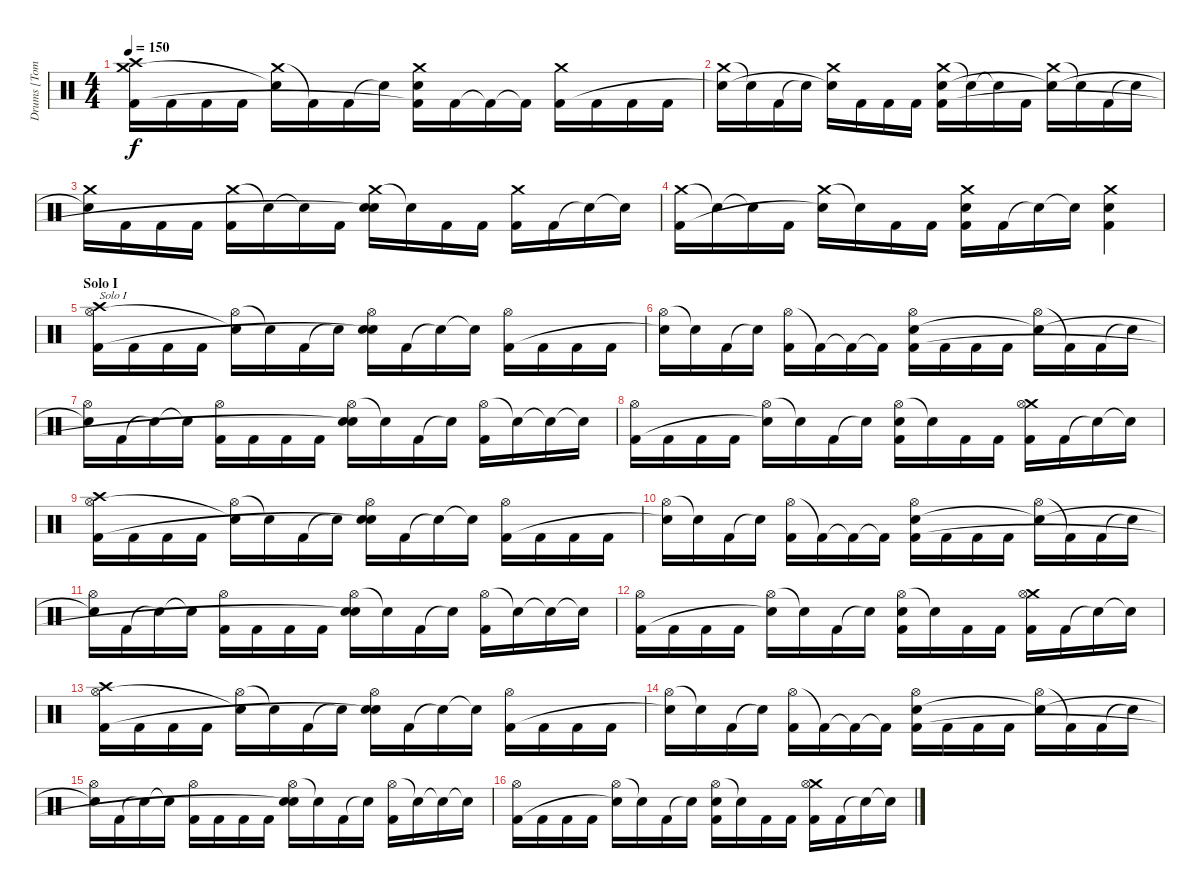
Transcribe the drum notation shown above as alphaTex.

\track ("Drums [Tomas Haake]" "Drums [Tom") {instrument percussion}
\staff {score}
\articulation defaults
\ts (4 4)
\tempo 150
\clef neutral
\ks c
("Crash high (hit)" "Crash medium (hit)" "Kick (hit) 2").16{dy f} "Kick (hit) 2".16 "Kick (hit) 2".16 "Kick (hit) 2".16 ("Crash medium (hit)" "Snare (hit)"{t}).16 "Kick (hit) 2"{t}.16 "Kick (hit) 2".16 "Snare (hit)"{t}.16 ("Crash medium (hit)" "Electric Snare (hit)" "Kick (hit) 2"{t}).16 "Kick (hit) 2".16 "Kick (hit) 2"{t}.16 "Kick (hit) 2"{t}.16 ("Crash medium (hit)" "Kick (hit) 2").16 "Kick (hit) 2".16 "Kick (hit) 2".16 "Kick (hit) 2".16 |
("Crash medium (hit)" "Snare (hit)"{t}).16 "Snare (hit)"{t}.16 "Kick (hit) 2".16 "Snare (hit)"{t}.16 ("Crash medium (hit)" "Snare (hit)"{t}).16 "Kick (hit) 2".16 "Kick (hit) 2".16 "Kick (hit) 2".16 ("Crash medium (hit)" "Electric Snare (hit)" "Kick (hit) 2").16 "Snare (hit)"{t}.16 "Snare (hit)"{t}.16 "Kick (hit) 2".16 ("Crash medium (hit)" "Snare (hit)"{t}).16 "Snare (hit)"{t}.16 "Kick (hit) 2".16 "Snare (hit)"{t}.16 |
("Crash medium (hit)" "Snare (hit)"{t}).16 "Kick (hit) 2".16 "Kick (hit) 2".16 "Kick (hit) 2".16 ("Crash medium (hit)" "Kick (hit) 2").16 "Snare (hit)"{t}.16 "Snare (hit)"{t}.16 "Kick (hit) 2".16 ("Crash medium (hit)" "Electric Snare (hit)" "Snare (hit)"{t}).16 "Snare (hit)"{t}.16 "Kick (hit) 2".16 "Kick (hit) 2".16 ("Crash medium (hit)" "Kick (hit) 2").16 "Kick (hit) 2".16 "Snare (hit)"{t}.16 "Snare (hit)"{t}.16 |
("Crash medium (hit)" "Kick (hit) 2").16 "Snare (hit)"{t}.16 "Snare (hit)"{t}.16 "Kick (hit) 2".16 ("Crash medium (hit)" "Snare (hit)"{t}).16 "Snare (hit)"{t}.16 "Kick (hit) 2".16 "Kick (hit) 2".16 ("Crash medium (hit)" "Electric Snare (hit)" "Kick (hit) 2").16 "Kick (hit) 2".16 "Snare (hit)"{t}.16 "Snare (hit)"{t}.16 ("Crash medium (hit)" "Electric Snare (hit)" "Kick (hit) 2").4 |
\section ("" "Solo I")
("Crash high (hit)" "Hi-Hat (open)" "Kick (hit) 2").16{txt "Solo I"} "Kick (hit) 2".16 "Kick (hit) 2".16 "Kick (hit) 2".16 ("Hi-Hat (open)" "Snare (hit)"{t}).16 "Snare (hit)"{t}.16 "Kick (hit) 2".16 "Snare (hit)"{t}.16 ("Hi-Hat (open)" "Electric Snare (hit)" "Snare (hit)"{t}).16 "Kick (hit) 2".16 "Snare (hit)"{t}.16 "Snare (hit)"{t}.16 ("Hi-Hat (open)" "Kick (hit) 2").16 "Kick (hit) 2".16 "Kick (hit) 2".16 "Kick (hit) 2".16 |
("Hi-Hat (open)" "Snare (hit)"{t}).16 "Snare (hit)"{t}.16 "Kick (hit) 2".16 "Snare (hit)"{t}.16 ("Hi-Hat (open)" "Kick (hit) 2").16 "Kick (hit) 2"{t}.16 "Kick (hit) 2"{t}.16 "Kick (hit) 2"{t}.16 ("Hi-Hat (open)" "Electric Snare (hit)" "Kick (hit) 2").16 "Kick (hit) 2".16 "Kick (hit) 2".16 "Kick (hit) 2".16 ("Hi-Hat (open)" "Snare (hit)"{t}).16 "Kick (hit) 2"{t}.16 "Kick (hit) 2".16 "Snare (hit)"{t}.16 |
("Hi-Hat (open)" "Snare (hit)"{t}).16 "Kick (hit) 2".16 "Snare (hit)"{t}.16 "Snare (hit)"{t}.16 ("Hi-Hat (open)" "Kick (hit) 2").16 "Kick (hit) 2".16 "Kick (hit) 2".16 "Kick (hit) 2".16 ("Hi-Hat (open)" "Electric Snare (hit)" "Snare (hit)"{t}).16 "Snare (hit)"{t}.16 "Kick (hit) 2".16 "Snare (hit)"{t}.16 ("Hi-Hat (open)" "Kick (hit) 2").16 "Snare (hit)"{t}.16 "Snare (hit)"{t}.16 "Snare (hit)"{t}.16 |
("Hi-Hat (open)" "Kick (hit) 2").16 "Kick (hit) 2".16 "Kick (hit) 2".16 "Kick (hit) 2".16 ("Hi-Hat (open)" "Snare (hit)"{t}).16 "Snare (hit)"{t}.16 "Kick (hit) 2".16 "Snare (hit)"{t}.16 ("Hi-Hat (open)" "Electric Snare (hit)" "Kick (hit) 2").16 "Snare (hit)"{t}.16 "Kick (hit) 2".16 "Kick (hit) 2".16 ("Crash medium (hit)" "Hi-Hat (open)" "Kick (hit) 2").16 "Kick (hit) 2".16 "Snare (hit)"{t}.16 "Snare (hit)"{t}.16 |
("Crash high (hit)" "Hi-Hat (open)" "Kick (hit) 2").16 "Kick (hit) 2".16 "Kick (hit) 2".16 "Kick (hit) 2".16 ("Hi-Hat (open)" "Snare (hit)"{t}).16 "Snare (hit)"{t}.16 "Kick (hit) 2".16 "Snare (hit)"{t}.16 ("Hi-Hat (open)" "Electric Snare (hit)" "Snare (hit)"{t}).16 "Kick (hit) 2".16 "Snare (hit)"{t}.16 "Snare (hit)"{t}.16 ("Hi-Hat (open)" "Kick (hit) 2").16 "Kick (hit) 2".16 "Kick (hit) 2".16 "Kick (hit) 2".16 |
("Hi-Hat (open)" "Snare (hit)"{t}).16 "Snare (hit)"{t}.16 "Kick (hit) 2".16 "Snare (hit)"{t}.16 ("Hi-Hat (open)" "Kick (hit) 2").16 "Kick (hit) 2"{t}.16 "Kick (hit) 2"{t}.16 "Kick (hit) 2"{t}.16 ("Hi-Hat (open)" "Electric Snare (hit)" "Kick (hit) 2").16 "Kick (hit) 2".16 "Kick (hit) 2".16 "Kick (hit) 2".16 ("Hi-Hat (open)" "Snare (hit)"{t}).16 "Kick (hit) 2"{t}.16 "Kick (hit) 2".16 "Snare (hit)"{t}.16 |
("Hi-Hat (open)" "Snare (hit)"{t}).16 "Kick (hit) 2".16 "Snare (hit)"{t}.16 "Snare (hit)"{t}.16 ("Hi-Hat (open)" "Kick (hit) 2").16 "Kick (hit) 2".16 "Kick (hit) 2".16 "Kick (hit) 2".16 ("Hi-Hat (open)" "Electric Snare (hit)" "Snare (hit)"{t}).16 "Snare (hit)"{t}.16 "Kick (hit) 2".16 "Snare (hit)"{t}.16 ("Hi-Hat (open)" "Kick (hit) 2").16 "Snare (hit)"{t}.16 "Snare (hit)"{t}.16 "Snare (hit)"{t}.16 |
("Hi-Hat (open)" "Kick (hit) 2").16 "Kick (hit) 2".16 "Kick (hit) 2".16 "Kick (hit) 2".16 ("Hi-Hat (open)" "Snare (hit)"{t}).16 "Snare (hit)"{t}.16 "Kick (hit) 2".16 "Snare (hit)"{t}.16 ("Hi-Hat (open)" "Electric Snare (hit)" "Kick (hit) 2").16 "Snare (hit)"{t}.16 "Kick (hit) 2".16 "Kick (hit) 2".16 ("Crash medium (hit)" "Hi-Hat (open)" "Kick (hit) 2").16 "Kick (hit) 2".16 "Snare (hit)"{t}.16 "Snare (hit)"{t}.16 |
("Crash high (hit)" "Hi-Hat (open)" "Kick (hit) 2").16 "Kick (hit) 2".16 "Kick (hit) 2".16 "Kick (hit) 2".16 ("Hi-Hat (open)" "Snare (hit)"{t}).16 "Snare (hit)"{t}.16 "Kick (hit) 2".16 "Snare (hit)"{t}.16 ("Hi-Hat (open)" "Electric Snare (hit)" "Snare (hit)"{t}).16 "Kick (hit) 2".16 "Snare (hit)"{t}.16 "Snare (hit)"{t}.16 ("Hi-Hat (open)" "Kick (hit) 2").16 "Kick (hit) 2".16 "Kick (hit) 2".16 "Kick (hit) 2".16 |
("Hi-Hat (open)" "Snare (hit)"{t}).16 "Snare (hit)"{t}.16 "Kick (hit) 2".16 "Snare (hit)"{t}.16 ("Hi-Hat (open)" "Kick (hit) 2").16 "Kick (hit) 2"{t}.16 "Kick (hit) 2"{t}.16 "Kick (hit) 2"{t}.16 ("Hi-Hat (open)" "Electric Snare (hit)" "Kick (hit) 2").16 "Kick (hit) 2".16 "Kick (hit) 2".16 "Kick (hit) 2".16 ("Hi-Hat (open)" "Snare (hit)"{t}).16 "Kick (hit) 2"{t}.16 "Kick (hit) 2".16 "Snare (hit)"{t}.16 |
("Hi-Hat (open)" "Snare (hit)"{t}).16 "Kick (hit) 2".16 "Snare (hit)"{t}.16 "Snare (hit)"{t}.16 ("Hi-Hat (open)" "Kick (hit) 2").16 "Kick (hit) 2".16 "Kick (hit) 2".16 "Kick (hit) 2".16 ("Hi-Hat (open)" "Electric Snare (hit)" "Snare (hit)"{t}).16 "Snare (hit)"{t}.16 "Kick (hit) 2".16 "Snare (hit)"{t}.16 ("Hi-Hat (open)" "Kick (hit) 2").16 "Snare (hit)"{t}.16 "Snare (hit)"{t}.16 "Snare (hit)"{t}.16 |
("Hi-Hat (open)" "Kick (hit) 2").16 "Kick (hit) 2".16 "Kick (hit) 2".16 "Kick (hit) 2".16 ("Hi-Hat (open)" "Snare (hit)"{t}).16 "Snare (hit)"{t}.16 "Kick (hit) 2".16 "Snare (hit)"{t}.16 ("Hi-Hat (open)" "Electric Snare (hit)" "Kick (hit) 2").16 "Snare (hit)"{t}.16 "Kick (hit) 2".16 "Kick (hit) 2".16 ("Crash medium (hit)" "Hi-Hat (open)" "Kick (hit) 2").16 "Kick (hit) 2".16 "Snare (hit)"{t}.16 "Snare (hit)"{t}.16
